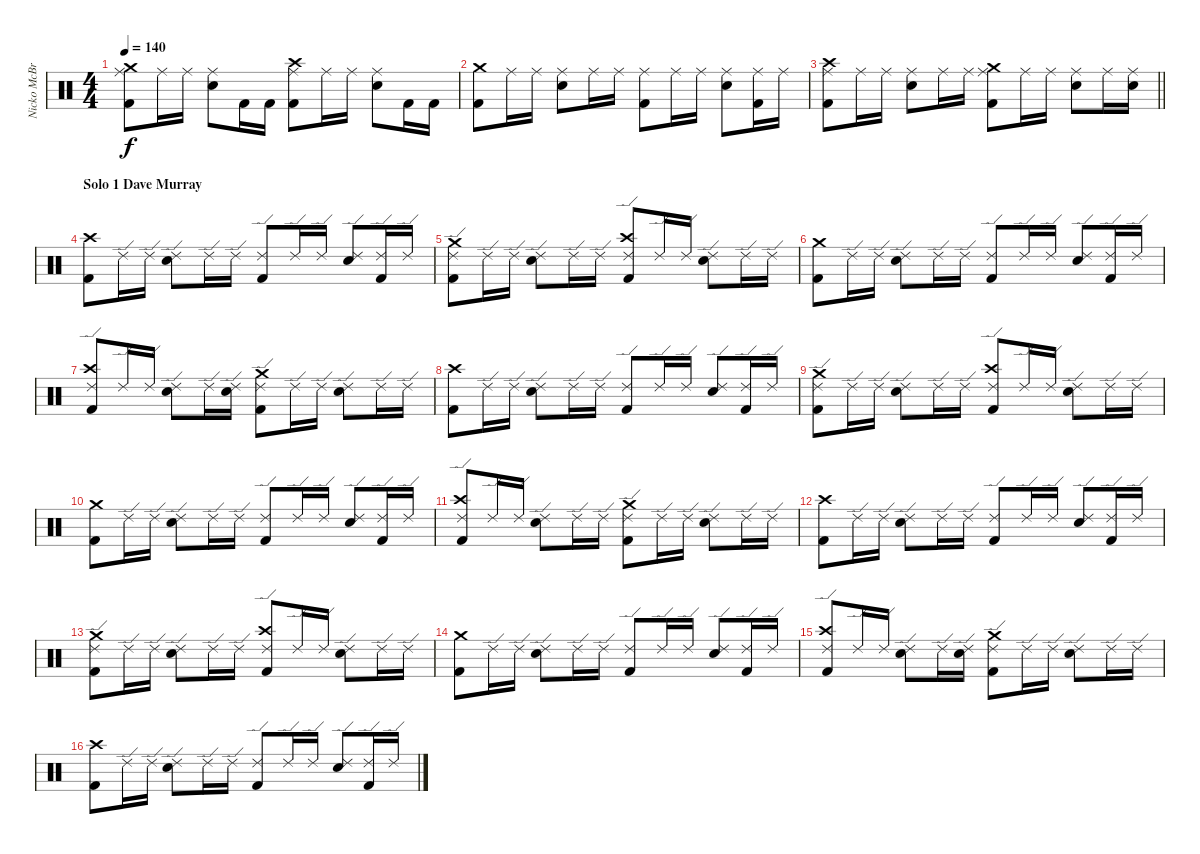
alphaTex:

\track ("Nicko McBrain" "Nicko McBr") {instrument percussion}
\staff {score}
\articulation defaults
\ts (4 4)
\tempo 140
\clef neutral
\ks c
("Ride (middle)" "Crash medium (hit)" "Kick (hit) 2").8{dy f} "Ride (middle)".16 "Ride (middle)".16 ("Ride (middle)" "Snare (hit) 2").8 "Kick (hit) 2".16 "Kick (hit) 2".16 ("Ride (middle)" "Crash high (hit)" "Kick (hit) 2").8 "Ride (middle)".16 "Ride (middle)".16 ("Ride (middle)" "Snare (hit) 2").8 "Kick (hit) 2".16 "Kick (hit) 2".16 |
("Crash medium (hit)" "Kick (hit) 2").8 "Ride (middle)".16 "Ride (middle)".16 ("Ride (middle)" "Snare (hit) 2").8 "Ride (middle)".16 "Ride (middle)".16 ("Ride (middle)" "Kick (hit) 2").8 "Ride (middle)".16 "Ride (middle)".16 ("Ride (middle)" "Snare (hit) 2").8 ("Ride (middle)" "Kick (hit) 2").16 "Ride (middle)".16 |
\barLineRight lightlight
("Ride (middle)" "Crash high (hit)" "Kick (hit) 2").8 "Ride (middle)".16 "Ride (middle)".16 ("Ride (middle)" "Snare (hit) 2").8 "Ride (middle)".16 "Ride (middle)".16 ("Ride (middle)" "Crash medium (hit)" "Kick (hit) 2").8 "Ride (middle)".16 "Ride (middle)".16 ("Ride (middle)" "Snare (hit) 2").8 "Ride (middle)".16 ("Ride (middle)" "Snare (hit) 2").16 |
\section ("" "Solo 1 Dave Murray")
("Crash high (hit)" "Kick (hit) 2").8 "Ride (edge) 2".16 "Ride (edge) 2".16 ("Ride (edge) 2" "Snare (hit) 2").8 "Ride (edge) 2".16 "Ride (edge) 2".16 ("Ride (edge) 2" "Kick (hit) 2").8 "Ride (edge) 2".16 "Ride (edge) 2".16 ("Ride (edge) 2" "Snare (hit) 2").8 ("Ride (edge) 2" "Kick (hit) 2").16 "Ride (edge) 2".16 |
("Ride (edge) 2" "Crash medium (hit)" "Kick (hit) 2").8 "Ride (edge) 2".16 "Ride (edge) 2".16 ("Ride (edge) 2" "Snare (hit) 2").8 "Ride (edge) 2".16 "Ride (edge) 2".16 ("Ride (edge) 2" "Crash high (hit)" "Kick (hit) 2").8 "Ride (edge) 2".16 "Ride (edge) 2".16 ("Ride (edge) 2" "Snare (hit) 2").8 "Ride (edge) 2".16 "Ride (edge) 2".16 |
("Crash medium (hit)" "Kick (hit) 2").8 "Ride (edge) 2".16 "Ride (edge) 2".16 ("Ride (edge) 2" "Snare (hit) 2").8 "Ride (edge) 2".16 "Ride (edge) 2".16 ("Ride (edge) 2" "Kick (hit) 2").8 "Ride (edge) 2".16 "Ride (edge) 2".16 ("Ride (edge) 2" "Snare (hit) 2").8 ("Ride (edge) 2" "Kick (hit) 2").16 "Ride (edge) 2".16 |
("Ride (edge) 2" "Crash high (hit)" "Kick (hit) 2").8 "Ride (edge) 2".16 "Ride (edge) 2".16 ("Ride (edge) 2" "Snare (hit) 2").8 "Ride (edge) 2".16 ("Ride (edge) 2" "Snare (hit) 2").16 ("Ride (edge) 2" "Crash medium (hit)" "Kick (hit) 2").8 "Ride (edge) 2".16 "Ride (edge) 2".16 ("Ride (edge) 2" "Snare (hit) 2").8 "Ride (edge) 2".16 "Ride (edge) 2".16 |
("Crash high (hit)" "Kick (hit) 2").8 "Ride (edge) 2".16 "Ride (edge) 2".16 ("Ride (edge) 2" "Snare (hit) 2").8 "Ride (edge) 2".16 "Ride (edge) 2".16 ("Ride (edge) 2" "Kick (hit) 2").8 "Ride (edge) 2".16 "Ride (edge) 2".16 ("Ride (edge) 2" "Snare (hit) 2").8 ("Ride (edge) 2" "Kick (hit) 2").16 "Ride (edge) 2".16 |
("Ride (edge) 2" "Crash medium (hit)" "Kick (hit) 2").8 "Ride (edge) 2".16 "Ride (edge) 2".16 ("Ride (edge) 2" "Snare (hit) 2").8 "Ride (edge) 2".16 "Ride (edge) 2".16 ("Ride (edge) 2" "Crash high (hit)" "Kick (hit) 2").8 "Ride (edge) 2".16 "Ride (edge) 2".16 ("Ride (edge) 2" "Snare (hit) 2").8 "Ride (edge) 2".16 "Ride (edge) 2".16 |
("Crash medium (hit)" "Kick (hit) 2").8 "Ride (edge) 2".16 "Ride (edge) 2".16 ("Ride (edge) 2" "Snare (hit) 2").8 "Ride (edge) 2".16 "Ride (edge) 2".16 ("Ride (edge) 2" "Kick (hit) 2").8 "Ride (edge) 2".16 "Ride (edge) 2".16 ("Ride (edge) 2" "Snare (hit) 2").8 ("Ride (edge) 2" "Kick (hit) 2").16 "Ride (edge) 2".16 |
("Ride (edge) 2" "Crash high (hit)" "Kick (hit) 2").8 "Ride (edge) 2".16 "Ride (edge) 2".16 ("Ride (edge) 2" "Snare (hit) 2").8 "Ride (edge) 2".16 "Ride (edge) 2".16 ("Ride (edge) 2" "Crash medium (hit)" "Kick (hit) 2").8 "Ride (edge) 2".16 "Ride (edge) 2".16 ("Ride (edge) 2" "Snare (hit) 2").8 "Ride (edge) 2".16 "Ride (edge) 2".16 |
("Crash high (hit)" "Kick (hit) 2").8 "Ride (edge) 2".16 "Ride (edge) 2".16 ("Ride (edge) 2" "Snare (hit) 2").8 "Ride (edge) 2".16 "Ride (edge) 2".16 ("Ride (edge) 2" "Kick (hit) 2").8 "Ride (edge) 2".16 "Ride (edge) 2".16 ("Ride (edge) 2" "Snare (hit) 2").8 ("Ride (edge) 2" "Kick (hit) 2").16 "Ride (edge) 2".16 |
("Ride (edge) 2" "Crash medium (hit)" "Kick (hit) 2").8 "Ride (edge) 2".16 "Ride (edge) 2".16 ("Ride (edge) 2" "Snare (hit) 2").8 "Ride (edge) 2".16 "Ride (edge) 2".16 ("Ride (edge) 2" "Crash high (hit)" "Kick (hit) 2").8 "Ride (edge) 2".16 "Ride (edge) 2".16 ("Ride (edge) 2" "Snare (hit) 2").8 "Ride (edge) 2".16 "Ride (edge) 2".16 |
("Crash medium (hit)" "Kick (hit) 2").8 "Ride (edge) 2".16 "Ride (edge) 2".16 ("Ride (edge) 2" "Snare (hit) 2").8 "Ride (edge) 2".16 "Ride (edge) 2".16 ("Ride (edge) 2" "Kick (hit) 2").8 "Ride (edge) 2".16 "Ride (edge) 2".16 ("Ride (edge) 2" "Snare (hit) 2").8 ("Ride (edge) 2" "Kick (hit) 2").16 "Ride (edge) 2".16 |
("Ride (edge) 2" "Crash high (hit)" "Kick (hit) 2").8 "Ride (edge) 2".16 "Ride (edge) 2".16 ("Ride (edge) 2" "Snare (hit) 2").8 "Ride (edge) 2".16 ("Ride (edge) 2" "Snare (hit) 2").16 ("Ride (edge) 2" "Crash medium (hit)" "Kick (hit) 2").8 "Ride (edge) 2".16 "Ride (edge) 2".16 ("Ride (edge) 2" "Snare (hit) 2").8 "Ride (edge) 2".16 "Ride (edge) 2".16 |
("Crash high (hit)" "Kick (hit) 2").8 "Ride (edge) 2".16 "Ride (edge) 2".16 ("Ride (edge) 2" "Snare (hit) 2").8 "Ride (edge) 2".16 "Ride (edge) 2".16 ("Ride (edge) 2" "Kick (hit) 2").8 "Ride (edge) 2".16 "Ride (edge) 2".16 ("Ride (edge) 2" "Snare (hit) 2").8 ("Ride (edge) 2" "Kick (hit) 2").16 "Ride (edge) 2".16
